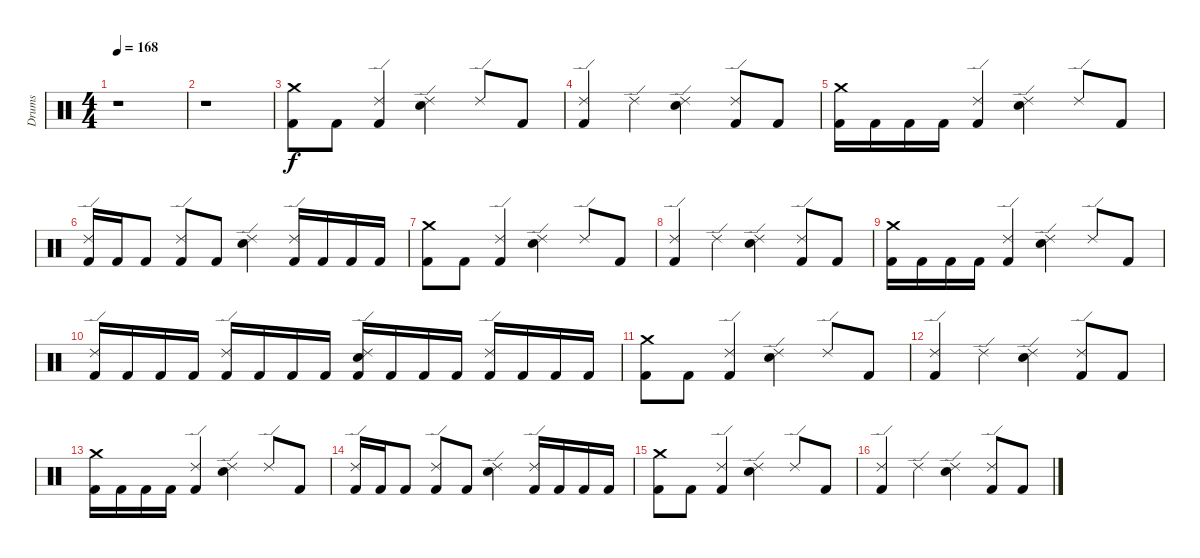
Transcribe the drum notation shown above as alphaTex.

\track ("Drums" "Drums") {instrument percussion}
\staff {score}
\articulation defaults
\ts (4 4)
\tempo 168
\clef neutral
\ks c
r.1{dy f} |
r.1 |
("Kick (hit) 2" "Crash medium (hit)").8 "Kick (hit) 2".8 ("Kick (hit) 2" "Ride (edge) 2").4 ("Snare (hit) 2" "Ride (edge) 2").4 "Ride (edge) 2".8 "Kick (hit) 2".8 |
("Kick (hit) 2" "Ride (edge) 2").4 "Ride (edge) 2".4 ("Snare (hit) 2" "Ride (edge) 2").4 ("Kick (hit) 2" "Ride (edge) 2").8 "Kick (hit) 2".8 |
("Kick (hit) 2" "Crash medium (hit)").16 "Kick (hit) 2".16 "Kick (hit) 2".16 "Kick (hit) 2".16 ("Kick (hit) 2" "Ride (edge) 2").4 ("Snare (hit) 2" "Ride (edge) 2").4 "Ride (edge) 2".8 "Kick (hit) 2".8 |
("Kick (hit) 2" "Ride (edge) 2").16 "Kick (hit) 2".16 "Kick (hit) 2".8 ("Kick (hit) 2" "Ride (edge) 2").8 "Kick (hit) 2".8 ("Snare (hit) 2" "Ride (edge) 2").4 ("Kick (hit) 2" "Ride (edge) 2").16 "Kick (hit) 2".16 "Kick (hit) 2".16 "Kick (hit) 2".16 |
("Kick (hit) 2" "Crash medium (hit)").8 "Kick (hit) 2".8 ("Kick (hit) 2" "Ride (edge) 2").4 ("Snare (hit) 2" "Ride (edge) 2").4 "Ride (edge) 2".8 "Kick (hit) 2".8 |
("Kick (hit) 2" "Ride (edge) 2").4 "Ride (edge) 2".4 ("Snare (hit) 2" "Ride (edge) 2").4 ("Kick (hit) 2" "Ride (edge) 2").8 "Kick (hit) 2".8 |
("Kick (hit) 2" "Crash medium (hit)").16 "Kick (hit) 2".16 "Kick (hit) 2".16 "Kick (hit) 2".16 ("Kick (hit) 2" "Ride (edge) 2").4 ("Snare (hit) 2" "Ride (edge) 2").4 "Ride (edge) 2".8 "Kick (hit) 2".8 |
("Kick (hit) 2" "Ride (edge) 2").16 "Kick (hit) 2".16 "Kick (hit) 2".16 "Kick (hit) 2".16 ("Kick (hit) 2" "Ride (edge) 2").16 "Kick (hit) 2".16 "Kick (hit) 2".16 "Kick (hit) 2".16 ("Kick (hit) 2" "Snare (hit) 2" "Ride (edge) 2").16 "Kick (hit) 2".16 "Kick (hit) 2".16 "Kick (hit) 2".16 ("Kick (hit) 2" "Ride (edge) 2").16 "Kick (hit) 2".16 "Kick (hit) 2".16 "Kick (hit) 2".16 |
("Kick (hit) 2" "Crash medium (hit)").8 "Kick (hit) 2".8 ("Kick (hit) 2" "Ride (edge) 2").4 ("Snare (hit) 2" "Ride (edge) 2").4 "Ride (edge) 2".8 "Kick (hit) 2".8 |
("Kick (hit) 2" "Ride (edge) 2").4 "Ride (edge) 2".4 ("Snare (hit) 2" "Ride (edge) 2").4 ("Kick (hit) 2" "Ride (edge) 2").8 "Kick (hit) 2".8 |
("Kick (hit) 2" "Crash medium (hit)").16 "Kick (hit) 2".16 "Kick (hit) 2".16 "Kick (hit) 2".16 ("Kick (hit) 2" "Ride (edge) 2").4 ("Snare (hit) 2" "Ride (edge) 2").4 "Ride (edge) 2".8 "Kick (hit) 2".8 |
("Kick (hit) 2" "Ride (edge) 2").16 "Kick (hit) 2".16 "Kick (hit) 2".8 ("Kick (hit) 2" "Ride (edge) 2").8 "Kick (hit) 2".8 ("Snare (hit) 2" "Ride (edge) 2").4 ("Kick (hit) 2" "Ride (edge) 2").16 "Kick (hit) 2".16 "Kick (hit) 2".16 "Kick (hit) 2".16 |
("Kick (hit) 2" "Crash medium (hit)").8 "Kick (hit) 2".8 ("Kick (hit) 2" "Ride (edge) 2").4 ("Snare (hit) 2" "Ride (edge) 2").4 "Ride (edge) 2".8 "Kick (hit) 2".8 |
("Kick (hit) 2" "Ride (edge) 2").4 "Ride (edge) 2".4 ("Snare (hit) 2" "Ride (edge) 2").4 ("Kick (hit) 2" "Ride (edge) 2").8 "Kick (hit) 2".8
